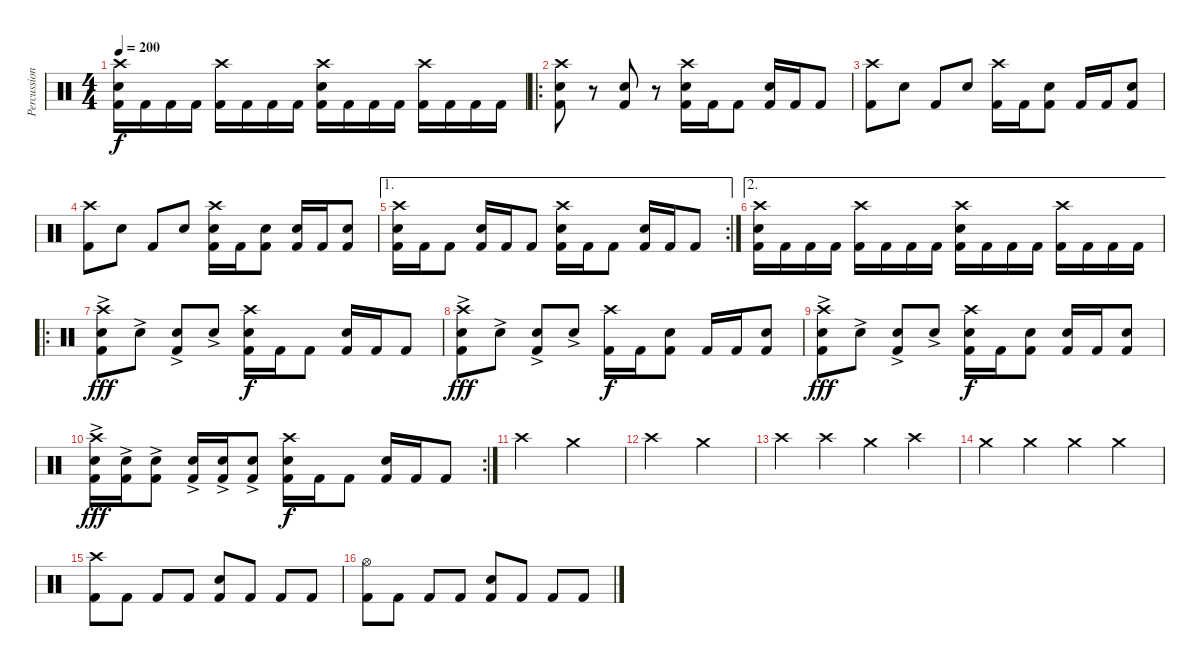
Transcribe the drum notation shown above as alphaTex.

\track ("Percussion" "Percussion") {instrument percussion}
\staff {score}
\articulation defaults
\ts (4 4)
\tempo 200
\clef neutral
\ks c
("Crash high (hit)" "Electric Snare (hit)" "Kick (hit) 2").16{dy f} "Kick (hit) 2".16 "Kick (hit) 2".16 "Kick (hit) 2".16 ("Crash high (hit)" "Kick (hit) 2").16 "Kick (hit) 2".16 "Kick (hit) 2".16 "Kick (hit) 2".16 ("Crash high (hit)" "Electric Snare (hit)" "Kick (hit) 2").16 "Kick (hit) 2".16 "Kick (hit) 2".16 "Kick (hit) 2".16 ("Crash high (hit)" "Kick (hit) 2").16 "Kick (hit) 2".16 "Kick (hit) 2".16 "Kick (hit) 2".16 |
\ro
("Crash high (hit)" "Electric Snare (hit)" "Kick (hit) 2").8 r.8 ("Electric Snare (hit)" "Kick (hit) 2").8 r.8 ("Crash high (hit)" "Electric Snare (hit)" "Kick (hit) 2").16 "Kick (hit) 2".16 "Kick (hit) 2".8 ("Electric Snare (hit)" "Kick (hit) 2").16 "Kick (hit) 2".16 "Kick (hit) 2".8 |
("Crash high (hit)" "Kick (hit) 2").8 "Electric Snare (hit)".8 "Kick (hit) 2".8 "Electric Snare (hit)".8 ("Crash high (hit)" "Kick (hit) 2").16 "Kick (hit) 2".16 ("Electric Snare (hit)" "Kick (hit) 2").8 "Kick (hit) 2".16 "Kick (hit) 2".16 ("Electric Snare (hit)" "Kick (hit) 2").8 |
("Crash high (hit)" "Kick (hit) 2").8 "Electric Snare (hit)".8 "Kick (hit) 2".8 "Electric Snare (hit)".8 ("Crash high (hit)" "Electric Snare (hit)" "Kick (hit) 2").16 "Kick (hit) 2".16 ("Electric Snare (hit)" "Kick (hit) 2").8 ("Electric Snare (hit)" "Kick (hit) 2").16 "Kick (hit) 2".16 ("Electric Snare (hit)" "Kick (hit) 2").8 |
\ae 1
\rc 2
("Crash high (hit)" "Electric Snare (hit)" "Kick (hit) 2").16 "Kick (hit) 2".16 "Kick (hit) 2".8 ("Electric Snare (hit)" "Kick (hit) 2").16 "Kick (hit) 2".16 "Kick (hit) 2".8 ("Crash high (hit)" "Electric Snare (hit)" "Kick (hit) 2").16 "Kick (hit) 2".16 "Kick (hit) 2".8 ("Electric Snare (hit)" "Kick (hit) 2").16 "Kick (hit) 2".16 "Kick (hit) 2".8 |
\ae 2
("Crash high (hit)" "Electric Snare (hit)" "Kick (hit) 2").16 "Kick (hit) 2".16 "Kick (hit) 2".16 "Kick (hit) 2".16 ("Crash high (hit)" "Kick (hit) 2").16 "Kick (hit) 2".16 "Kick (hit) 2".16 "Kick (hit) 2".16 ("Crash high (hit)" "Electric Snare (hit)" "Kick (hit) 2").16 "Kick (hit) 2".16 "Kick (hit) 2".16 "Kick (hit) 2".16 ("Crash high (hit)" "Kick (hit) 2").16 "Kick (hit) 2".16 "Kick (hit) 2".16 "Kick (hit) 2".16 |
\ro
("Crash high (hit)" "Electric Snare (hit)"{ac} "Kick (hit) 2").8{dy fff} "Electric Snare (hit)"{ac}.8 ("Electric Snare (hit)"{ac} "Kick (hit) 2").8 "Electric Snare (hit)"{ac}.8 ("Crash high (hit)" "Electric Snare (hit)" "Kick (hit) 2").16{dy f} "Kick (hit) 2".16 "Kick (hit) 2".8 ("Electric Snare (hit)" "Kick (hit) 2").16 "Kick (hit) 2".16 "Kick (hit) 2".8 |
("Crash high (hit)" "Electric Snare (hit)"{ac} "Kick (hit) 2").8{dy fff} "Electric Snare (hit)"{ac}.8 ("Electric Snare (hit)"{ac} "Kick (hit) 2").8 "Electric Snare (hit)"{ac}.8 ("Crash high (hit)" "Kick (hit) 2").16{dy f} "Kick (hit) 2".16 ("Electric Snare (hit)" "Kick (hit) 2").8 "Kick (hit) 2".16 "Kick (hit) 2".16 ("Electric Snare (hit)" "Kick (hit) 2").8 |
("Crash high (hit)" "Electric Snare (hit)"{ac} "Kick (hit) 2").8{dy fff} "Electric Snare (hit)"{ac}.8 ("Electric Snare (hit)"{ac} "Kick (hit) 2").8 "Electric Snare (hit)"{ac}.8 ("Crash high (hit)" "Electric Snare (hit)" "Kick (hit) 2").16{dy f} "Kick (hit) 2".16 ("Electric Snare (hit)" "Kick (hit) 2").8 ("Electric Snare (hit)" "Kick (hit) 2").16 "Kick (hit) 2".16 ("Electric Snare (hit)" "Kick (hit) 2").8 |
\rc 2
("Crash high (hit)" "Electric Snare (hit)"{ac} "Kick (hit) 2").16{dy fff} ("Electric Snare (hit)"{ac} "Kick (hit) 2").16 ("Electric Snare (hit)"{ac} "Kick (hit) 2").8 ("Electric Snare (hit)"{ac} "Kick (hit) 2").16 ("Electric Snare (hit)"{ac} "Kick (hit) 2").16 ("Electric Snare (hit)"{ac} "Kick (hit) 2").8 ("Crash high (hit)" "Electric Snare (hit)" "Kick (hit) 2").16{dy f} "Kick (hit) 2".16 "Kick (hit) 2".8 ("Electric Snare (hit)" "Kick (hit) 2").16 "Kick (hit) 2".16 "Kick (hit) 2".8 |
"Crash high (hit)".2 "Crash medium (hit)".2 |
"Crash high (hit)".2 "Crash medium (hit)".2 |
"Crash high (hit)".4 "Crash high (hit)".4 "Crash medium (hit)".4 "Crash high (hit)".4 |
"Crash medium (hit)".4 "Crash medium (hit)".4 "Crash medium (hit)".4 "Crash medium (hit)".4 |
("Crash high (hit)" "Kick (hit) 2").8 "Kick (hit) 2".8 "Kick (hit) 2".8 "Kick (hit) 2".8 ("Electric Snare (hit)" "Kick (hit) 2").8 "Kick (hit) 2".8 "Kick (hit) 2".8 "Kick (hit) 2".8 |
("Hi-Hat (open)" "Kick (hit) 2").8 "Kick (hit) 2".8 "Kick (hit) 2".8 "Kick (hit) 2".8 ("Electric Snare (hit)" "Kick (hit) 2").8 "Kick (hit) 2".8 "Kick (hit) 2".8 "Kick (hit) 2".8
